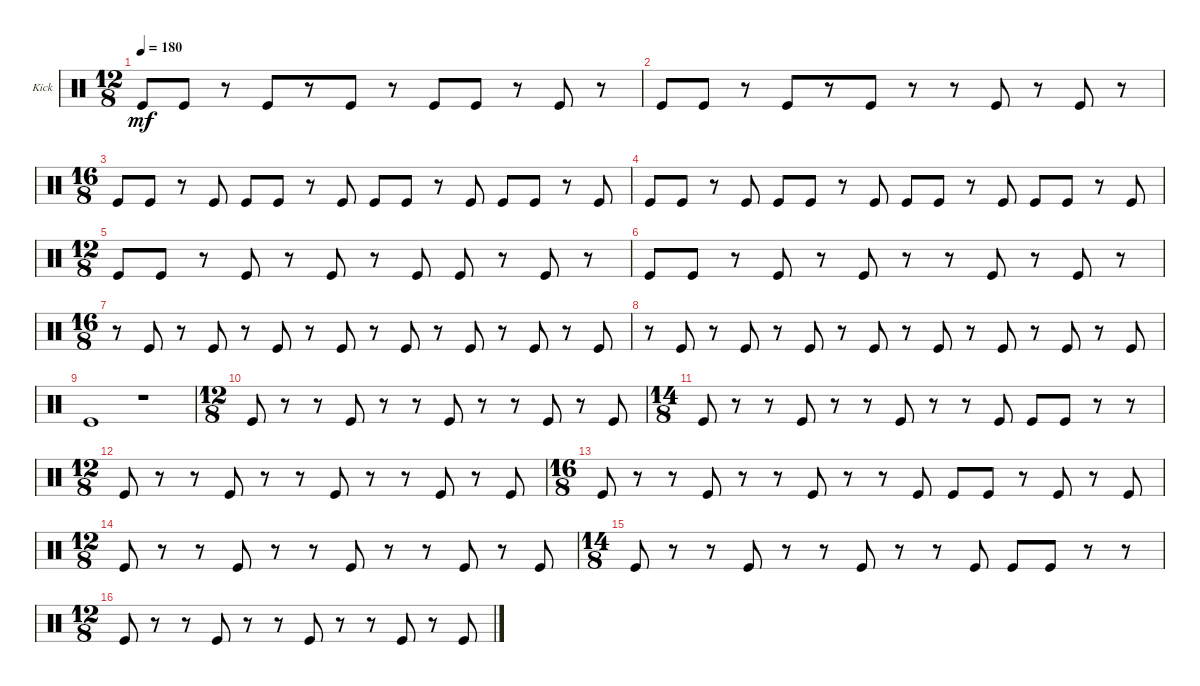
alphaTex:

\defaultSystemsLayout 4
\bracketExtendMode groupsimilarinstruments
\firstSystemTrackNameOrientation horizontal
\otherSystemsTrackNameOrientation horizontal
\track ("Kick" "Kick") {instrument percussion}
\staff {score}
\articulation defaults
\ts (12 8)
\tempo 180
\clef neutral
\ks c "Kick (hit)".8{dy mf} "Kick (hit)".8
r.8 "Kick (hit)".8 r.8 "Kick (hit)".8 r.8 "Kick (hit)".8 "Kick (hit)".8 r.8 "Kick (hit)".8 r.8 |
"Kick (hit)".8 "Kick (hit)".8 r.8 "Kick (hit)".8 r.8 "Kick (hit)".8 r.8 r.8 "Kick (hit)".8 r.8 "Kick (hit)".8 r.8 |
\ts (16 8)
\beaming (8 2 2 2 2 2 2 2 1 1)
"Kick (hit)".8 "Kick (hit)".8 r.8 "Kick (hit)".8 "Kick (hit)".8 "Kick (hit)".8 r.8 "Kick (hit)".8 "Kick (hit)".8 "Kick (hit)".8 r.8 "Kick (hit)".8 "Kick (hit)".8 "Kick (hit)".8 r.8 "Kick (hit)".8 |
"Kick (hit)".8 "Kick (hit)".8 r.8 "Kick (hit)".8 "Kick (hit)".8 "Kick (hit)".8 r.8 "Kick (hit)".8 "Kick (hit)".8 "Kick (hit)".8 r.8 "Kick (hit)".8 "Kick (hit)".8 "Kick (hit)".8 r.8 "Kick (hit)".8 |
\ts (12 8)
"Kick (hit)".8 "Kick (hit)".8 r.8 "Kick (hit)".8 r.8 "Kick (hit)".8 r.8 "Kick (hit)".8 "Kick (hit)".8 r.8 "Kick (hit)".8 r.8 |
"Kick (hit)".8 "Kick (hit)".8 r.8 "Kick (hit)".8 r.8 "Kick (hit)".8 r.8 r.8 "Kick (hit)".8 r.8 "Kick (hit)".8 r.8 |
\ts (16 8)
r.8 "Kick (hit)".8 r.8 "Kick (hit)".8 r.8 "Kick (hit)".8 r.8 "Kick (hit)".8 r.8 "Kick (hit)".8 r.8 "Kick (hit)".8 r.8 "Kick (hit)".8 r.8 "Kick (hit)".8 |
r.8 "Kick (hit)".8 r.8 "Kick (hit)".8 r.8 "Kick (hit)".8 r.8 "Kick (hit)".8 r.8 "Kick (hit)".8 r.8 "Kick (hit)".8 r.8 "Kick (hit)".8 r.8 "Kick (hit)".8 |
"Kick (hit)".1 r.1 |
\ts (12 8)
"Kick (hit)".8 r.8 r.8 "Kick (hit)".8 r.8 r.8 "Kick (hit)".8 r.8 r.8 "Kick (hit)".8 r.8 "Kick (hit)".8 |
\ts (14 8)
"Kick (hit)".8 r.8 r.8 "Kick (hit)".8 r.8 r.8 "Kick (hit)".8 r.8 r.8 "Kick (hit)".8 "Kick (hit)".8 "Kick (hit)".8 r.8 r.8 |
\ts (12 8)
"Kick (hit)".8 r.8 r.8 "Kick (hit)".8 r.8 r.8 "Kick (hit)".8 r.8 r.8 "Kick (hit)".8 r.8 "Kick (hit)".8 |
\ts (16 8)
"Kick (hit)".8 r.8 r.8 "Kick (hit)".8 r.8 r.8 "Kick (hit)".8 r.8 r.8 "Kick (hit)".8 "Kick (hit)".8 "Kick (hit)".8 r.8 "Kick (hit)".8 r.8 "Kick (hit)".8 |
\ts (12 8)
"Kick (hit)".8 r.8 r.8 "Kick (hit)".8 r.8 r.8 "Kick (hit)".8 r.8 r.8 "Kick (hit)".8 r.8 "Kick (hit)".8 |
\ts (14 8)
"Kick (hit)".8 r.8 r.8 "Kick (hit)".8 r.8 r.8 "Kick (hit)".8 r.8 r.8 "Kick (hit)".8 "Kick (hit)".8 "Kick (hit)".8 r.8 r.8 |
\ts (12 8)
"Kick (hit)".8 r.8 r.8 "Kick (hit)".8 r.8 r.8 "Kick (hit)".8 r.8 r.8 "Kick (hit)".8 r.8 "Kick (hit)".8
